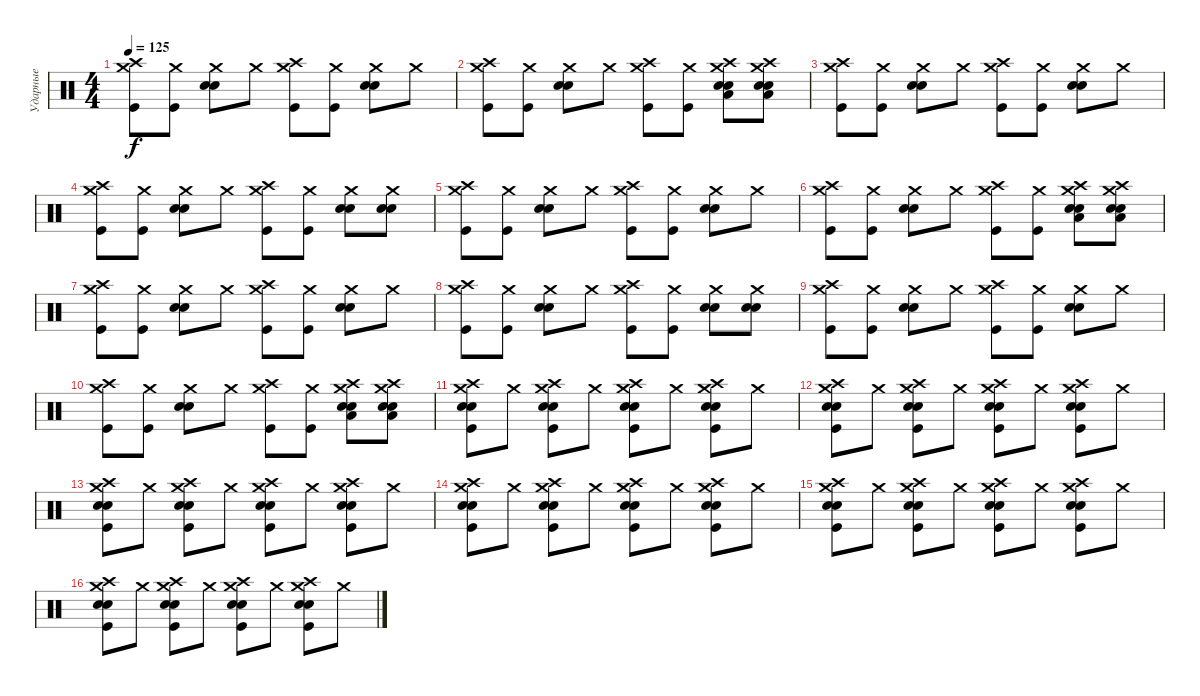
\track ("Ударные" "Ударные") {instrument percussion}
\staff {score}
\articulation defaults
\ts (4 4)
\tempo 125
\clef neutral
\ks c
("Crash medium (hit)" "Crash high (hit)" "Kick (hit)").8{dy f} ("Crash medium (hit)" "Kick (hit)").8 ("Crash medium (hit)" "Snare (hit) 2" "Snare (hit) 2").8 "Crash medium (hit)".8 ("Crash medium (hit)" "Crash high (hit)" "Kick (hit)").8 ("Crash medium (hit)" "Kick (hit)").8 ("Crash medium (hit)" "Snare (hit) 2" "Snare (hit) 2").8 "Crash medium (hit)".8 |
("Crash medium (hit)" "Crash high (hit)" "Kick (hit)").8 ("Crash medium (hit)" "Kick (hit)").8 ("Crash medium (hit)" "Snare (hit) 2" "Snare (hit) 2").8 "Crash medium (hit)".8 ("Crash medium (hit)" "Crash high (hit)" "Kick (hit)").8 ("Crash medium (hit)" "Kick (hit)").8 ("Crash medium (hit)" "Crash high (hit)" "Low Floor Tom (hit)" "Snare (hit) 2" "Snare (hit) 2").8 ("Crash medium (hit)" "Crash high (hit)" "Low Floor Tom (hit)" "Snare (hit) 2" "Snare (hit) 2").8 |
("Crash medium (hit)" "Crash high (hit)" "Kick (hit)").8 ("Crash medium (hit)" "Kick (hit)").8 ("Crash medium (hit)" "Snare (hit) 2" "Snare (hit) 2").8 "Crash medium (hit)".8 ("Crash medium (hit)" "Crash high (hit)" "Kick (hit)").8 ("Crash medium (hit)" "Kick (hit)").8 ("Crash medium (hit)" "Snare (hit) 2" "Snare (hit) 2").8 "Crash medium (hit)".8 |
("Crash medium (hit)" "Crash high (hit)" "Kick (hit)").8 ("Crash medium (hit)" "Kick (hit)").8 ("Crash medium (hit)" "Snare (hit) 2" "Snare (hit) 2").8 "Crash medium (hit)".8 ("Crash medium (hit)" "Crash high (hit)" "Kick (hit)").8 ("Crash medium (hit)" "Kick (hit)").8 ("Crash medium (hit)" "Snare (hit) 2" "Snare (hit) 2").8 ("Crash medium (hit)" "Snare (hit) 2" "Snare (hit) 2").8 |
("Crash medium (hit)" "Crash high (hit)" "Kick (hit)").8 ("Crash medium (hit)" "Kick (hit)").8 ("Crash medium (hit)" "Snare (hit) 2" "Snare (hit) 2").8 "Crash medium (hit)".8 ("Crash medium (hit)" "Crash high (hit)" "Kick (hit)").8 ("Crash medium (hit)" "Kick (hit)").8 ("Crash medium (hit)" "Snare (hit) 2" "Snare (hit) 2").8 "Crash medium (hit)".8 |
("Crash medium (hit)" "Crash high (hit)" "Kick (hit)").8 ("Crash medium (hit)" "Kick (hit)").8 ("Crash medium (hit)" "Snare (hit) 2" "Snare (hit) 2").8 "Crash medium (hit)".8 ("Crash medium (hit)" "Crash high (hit)" "Kick (hit)").8 ("Crash medium (hit)" "Kick (hit)").8 ("Crash medium (hit)" "Crash high (hit)" "Low Floor Tom (hit)" "Snare (hit) 2" "Snare (hit) 2").8 ("Crash medium (hit)" "Crash high (hit)" "Low Floor Tom (hit)" "Snare (hit) 2" "Snare (hit) 2").8 |
("Crash medium (hit)" "Crash high (hit)" "Kick (hit)").8 ("Crash medium (hit)" "Kick (hit)").8 ("Crash medium (hit)" "Snare (hit) 2" "Snare (hit) 2").8 "Crash medium (hit)".8 ("Crash medium (hit)" "Crash high (hit)" "Kick (hit)").8 ("Crash medium (hit)" "Kick (hit)").8 ("Crash medium (hit)" "Snare (hit) 2" "Snare (hit) 2").8 "Crash medium (hit)".8 |
("Crash medium (hit)" "Crash high (hit)" "Kick (hit)").8 ("Crash medium (hit)" "Kick (hit)").8 ("Crash medium (hit)" "Snare (hit) 2" "Snare (hit) 2").8 "Crash medium (hit)".8 ("Crash medium (hit)" "Crash high (hit)" "Kick (hit)").8 ("Crash medium (hit)" "Kick (hit)").8 ("Crash medium (hit)" "Snare (hit) 2" "Snare (hit) 2").8 ("Crash medium (hit)" "Snare (hit) 2" "Snare (hit) 2").8 |
("Crash medium (hit)" "Crash high (hit)" "Kick (hit)").8 ("Crash medium (hit)" "Kick (hit)").8 ("Crash medium (hit)" "Snare (hit) 2" "Snare (hit) 2").8 "Crash medium (hit)".8 ("Crash medium (hit)" "Crash high (hit)" "Kick (hit)").8 ("Crash medium (hit)" "Kick (hit)").8 ("Crash medium (hit)" "Snare (hit) 2" "Snare (hit) 2").8 "Crash medium (hit)".8 |
("Crash medium (hit)" "Crash high (hit)" "Kick (hit)").8 ("Crash medium (hit)" "Kick (hit)").8 ("Crash medium (hit)" "Snare (hit) 2" "Snare (hit) 2").8 "Crash medium (hit)".8 ("Crash medium (hit)" "Crash high (hit)" "Kick (hit)").8 ("Crash medium (hit)" "Kick (hit)").8 ("Crash medium (hit)" "Crash high (hit)" "Low Floor Tom (hit)" "Snare (hit) 2" "Snare (hit) 2").8 ("Crash medium (hit)" "Crash high (hit)" "Low Floor Tom (hit)" "Snare (hit) 2" "Snare (hit) 2").8 |
("Crash medium (hit)" "Crash high (hit)" "Snare (hit) 2" "Snare (hit) 2" "Kick (hit)").8 "Crash medium (hit)".8 ("Crash medium (hit)" "Crash high (hit)" "Snare (hit) 2" "Snare (hit) 2" "Kick (hit)").8 "Crash medium (hit)".8 ("Crash medium (hit)" "Crash high (hit)" "Snare (hit) 2" "Snare (hit) 2" "Kick (hit)").8 "Crash medium (hit)".8 ("Crash medium (hit)" "Crash high (hit)" "Snare (hit) 2" "Snare (hit) 2" "Kick (hit)").8 "Crash medium (hit)".8 |
("Crash medium (hit)" "Crash high (hit)" "Snare (hit) 2" "Snare (hit) 2" "Kick (hit)").8 "Crash medium (hit)".8 ("Crash medium (hit)" "Crash high (hit)" "Snare (hit) 2" "Snare (hit) 2" "Kick (hit)").8 "Crash medium (hit)".8 ("Crash medium (hit)" "Crash high (hit)" "Snare (hit) 2" "Snare (hit) 2" "Kick (hit)").8 "Crash medium (hit)".8 ("Crash medium (hit)" "Crash high (hit)" "Snare (hit) 2" "Snare (hit) 2" "Kick (hit)").8 "Crash medium (hit)".8 |
("Crash medium (hit)" "Crash high (hit)" "Snare (hit) 2" "Snare (hit) 2" "Kick (hit)").8 "Crash medium (hit)".8 ("Crash medium (hit)" "Crash high (hit)" "Snare (hit) 2" "Snare (hit) 2" "Kick (hit)").8 "Crash medium (hit)".8 ("Crash medium (hit)" "Crash high (hit)" "Snare (hit) 2" "Snare (hit) 2" "Kick (hit)").8 "Crash medium (hit)".8 ("Crash medium (hit)" "Crash high (hit)" "Snare (hit) 2" "Snare (hit) 2" "Kick (hit)").8 "Crash medium (hit)".8 |
("Crash medium (hit)" "Crash high (hit)" "Snare (hit) 2" "Snare (hit) 2" "Kick (hit)").8 "Crash medium (hit)".8 ("Crash medium (hit)" "Crash high (hit)" "Snare (hit) 2" "Snare (hit) 2" "Kick (hit)").8 "Crash medium (hit)".8 ("Crash medium (hit)" "Crash high (hit)" "Snare (hit) 2" "Snare (hit) 2" "Kick (hit)").8 "Crash medium (hit)".8 ("Crash medium (hit)" "Crash high (hit)" "Snare (hit) 2" "Snare (hit) 2" "Kick (hit)").8 "Crash medium (hit)".8 |
("Crash medium (hit)" "Crash high (hit)" "Snare (hit) 2" "Snare (hit) 2" "Kick (hit)").8 "Crash medium (hit)".8 ("Crash medium (hit)" "Crash high (hit)" "Snare (hit) 2" "Snare (hit) 2" "Kick (hit)").8 "Crash medium (hit)".8 ("Crash medium (hit)" "Crash high (hit)" "Snare (hit) 2" "Snare (hit) 2" "Kick (hit)").8 "Crash medium (hit)".8 ("Crash medium (hit)" "Crash high (hit)" "Snare (hit) 2" "Snare (hit) 2" "Kick (hit)").8 "Crash medium (hit)".8 |
("Crash medium (hit)" "Crash high (hit)" "Snare (hit) 2" "Snare (hit) 2" "Kick (hit)").8 "Crash medium (hit)".8 ("Crash medium (hit)" "Crash high (hit)" "Snare (hit) 2" "Snare (hit) 2" "Kick (hit)").8 "Crash medium (hit)".8 ("Crash medium (hit)" "Crash high (hit)" "Snare (hit) 2" "Snare (hit) 2" "Kick (hit)").8 "Crash medium (hit)".8 ("Crash medium (hit)" "Crash high (hit)" "Snare (hit) 2" "Snare (hit) 2" "Kick (hit)").8 "Crash medium (hit)".8
